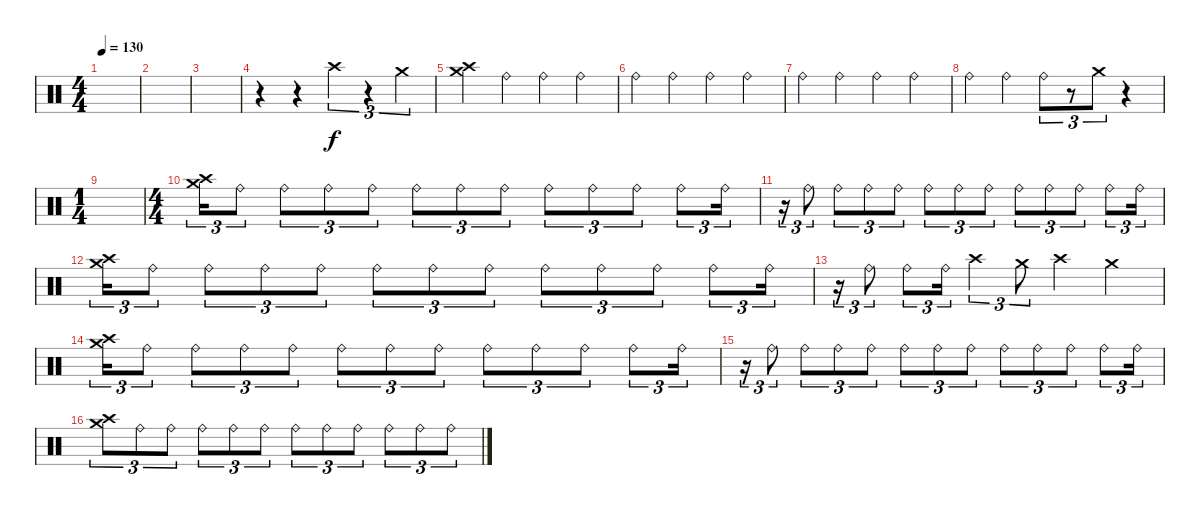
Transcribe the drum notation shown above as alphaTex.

\track "" {instrument percussion}
\staff {score}
\articulation defaults
\ts (4 4)
\tempo 130
\clef neutral
\ks c
|
|
|
r.4 r.4 "Crash high (hit)".4{tu (3 2)} r.4{tu (3 2)} "Crash medium (hit)".4{tu (3 2)} |
("Crash medium (hit)" "Crash high (hit)").4 "Ride (bell)".4 "Ride (bell)".4 "Ride (bell)".4 |
"Ride (bell)".4 "Ride (bell)".4 "Ride (bell)".4 "Ride (bell)".4 |
"Ride (bell)".4 "Ride (bell)".4 "Ride (bell)".4 "Ride (bell)".4 |
"Ride (bell)".4 "Ride (bell)".4 "Ride (bell)".8{tu (3 2)} r.8{tu (3 2)} "Crash medium (hit)".8{tu (3 2)} r.4 |
\ts (1 4)
|
\ts (4 4)
("Crash medium (hit)" "Crash high (hit)").16{tu (3 2)} "Ride (bell)".8{tu (3 2)} "Ride (bell)".8{tu (3 2)} "Ride (bell)".8{tu (3 2)} "Ride (bell)".8{tu (3 2)} "Ride (bell)".8{tu (3 2)} "Ride (bell)".8{tu (3 2)} "Ride (bell)".8{tu (3 2)} "Ride (bell)".8{tu (3 2)} "Ride (bell)".8{tu (3 2)} "Ride (bell)".8{tu (3 2)} "Ride (bell)".8{tu (3 2)} "Ride (bell)".16{tu (3 2)} |
r.16{tu (3 2)} "Ride (bell)".8{tu (3 2)} "Ride (bell)".8{tu (3 2)} "Ride (bell)".8{tu (3 2)} "Ride (bell)".8{tu (3 2)} "Ride (bell)".8{tu (3 2)} "Ride (bell)".8{tu (3 2)} "Ride (bell)".8{tu (3 2)} "Ride (bell)".8{tu (3 2)} "Ride (bell)".8{tu (3 2)} "Ride (bell)".8{tu (3 2)} "Ride (bell)".8{tu (3 2)} "Ride (bell)".16{tu (3 2)} |
("Crash medium (hit)" "Crash high (hit)").16{tu (3 2)} "Ride (bell)".8{tu (3 2)} "Ride (bell)".8{tu (3 2)} "Ride (bell)".8{tu (3 2)} "Ride (bell)".8{tu (3 2)} "Ride (bell)".8{tu (3 2)} "Ride (bell)".8{tu (3 2)} "Ride (bell)".8{tu (3 2)} "Ride (bell)".8{tu (3 2)} "Ride (bell)".8{tu (3 2)} "Ride (bell)".8{tu (3 2)} "Ride (bell)".8{tu (3 2)} "Ride (bell)".16{tu (3 2)} |
r.16{tu (3 2)} "Ride (bell)".8{tu (3 2)} "Ride (bell)".8{tu (3 2)} "Ride (bell)".16{tu (3 2)} "Crash high (hit)".4{tu (3 2)} "Crash medium (hit)".8{tu (3 2)} "Crash high (hit)".4 "Crash medium (hit)".4 |
("Crash medium (hit)" "Crash high (hit)").16{tu (3 2)} "Ride (bell)".8{tu (3 2)} "Ride (bell)".8{tu (3 2)} "Ride (bell)".8{tu (3 2)} "Ride (bell)".8{tu (3 2)} "Ride (bell)".8{tu (3 2)} "Ride (bell)".8{tu (3 2)} "Ride (bell)".8{tu (3 2)} "Ride (bell)".8{tu (3 2)} "Ride (bell)".8{tu (3 2)} "Ride (bell)".8{tu (3 2)} "Ride (bell)".8{tu (3 2)} "Ride (bell)".16{tu (3 2)} |
r.16{tu (3 2)} "Ride (bell)".8{tu (3 2)} "Ride (bell)".8{tu (3 2)} "Ride (bell)".8{tu (3 2)} "Ride (bell)".8{tu (3 2)} "Ride (bell)".8{tu (3 2)} "Ride (bell)".8{tu (3 2)} "Ride (bell)".8{tu (3 2)} "Ride (bell)".8{tu (3 2)} "Ride (bell)".8{tu (3 2)} "Ride (bell)".8{tu (3 2)} "Ride (bell)".8{tu (3 2)} "Ride (bell)".16{tu (3 2)} |
("Crash medium (hit)" "Crash high (hit)").8{tu (3 2)} "Ride (bell)".8{tu (3 2)} "Ride (bell)".8{tu (3 2)} "Ride (bell)".8{tu (3 2)} "Ride (bell)".8{tu (3 2)} "Ride (bell)".8{tu (3 2)} "Ride (bell)".8{tu (3 2)} "Ride (bell)".8{tu (3 2)} "Ride (bell)".8{tu (3 2)} "Ride (bell)".8{tu (3 2)} "Ride (bell)".8{tu (3 2)} "Ride (bell)".8{tu (3 2)}
